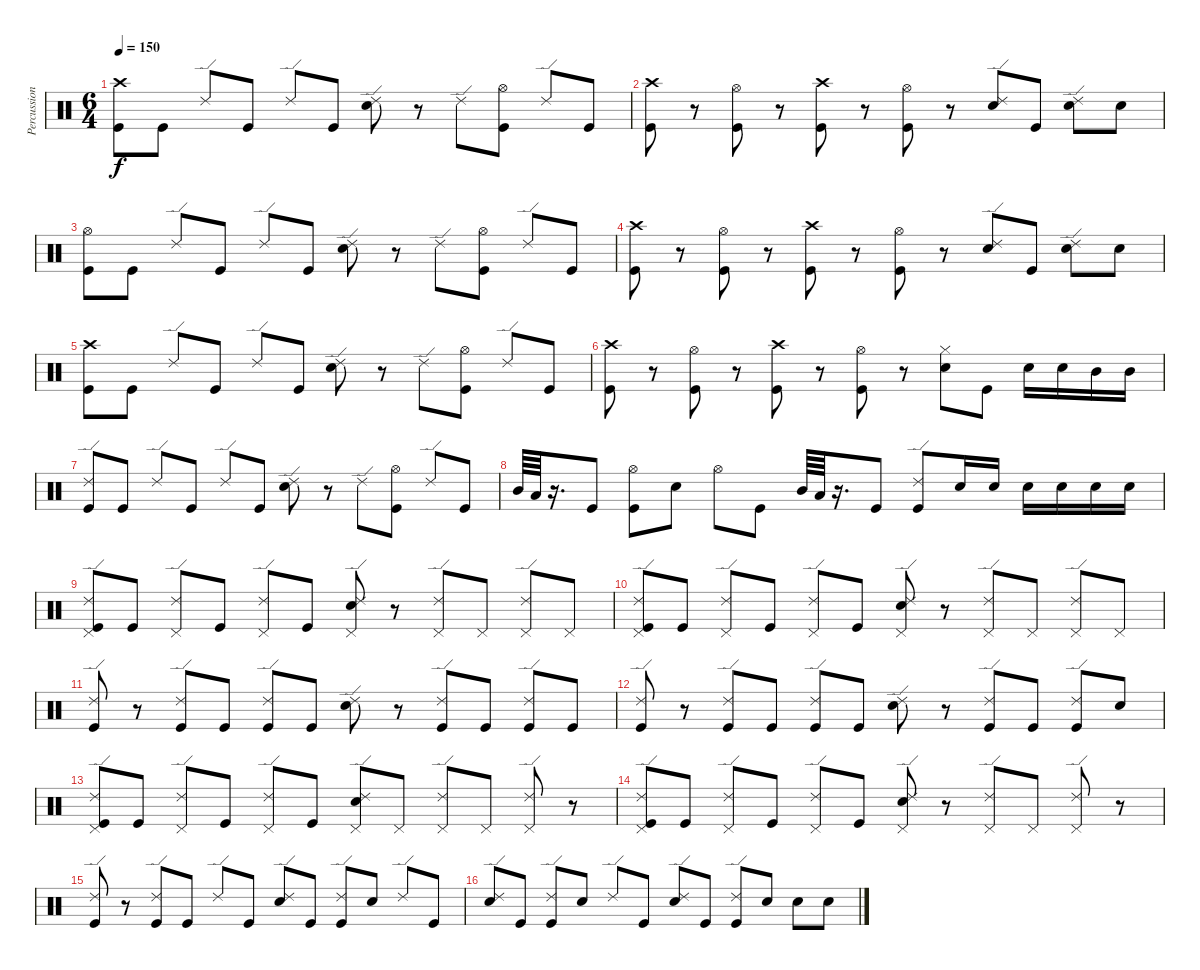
\track ("Percussion" "Percussion") {instrument percussion}
\staff {score}
\articulation defaults
\ts (6 4)
\tempo 150
\clef neutral
\ks c
("Crash high (hit)" "Kick (hit)").8{dy f} "Kick (hit)".8 "Ride (edge) 2".8 "Kick (hit)".8 "Ride (edge) 2".8 "Kick (hit)".8 ("Ride (edge) 2" "Snare (hit) 2").8 r.8 "Ride (edge) 2".8 ("Hi-Hat (open)" "Kick (hit)").8 "Ride (edge) 2".8 "Kick (hit)".8 |
("Crash high (hit)" "Kick (hit)").8 r.8 ("Hi-Hat (open)" "Kick (hit)").8 r.8 ("Crash high (hit)" "Kick (hit)").8 r.8 ("Hi-Hat (open)" "Kick (hit)").8 r.8 ("Ride (edge) 2" "Snare (hit) 2").8 "Kick (hit)".8 ("Ride (edge) 2" "Snare (hit) 2").8 "Snare (hit) 2".8 |
("Hi-Hat (open)" "Kick (hit)").8 "Kick (hit)".8 "Ride (edge) 2".8 "Kick (hit)".8 "Ride (edge) 2".8 "Kick (hit)".8 ("Ride (edge) 2" "Snare (hit) 2").8 r.8 "Ride (edge) 2".8 ("Hi-Hat (open)" "Kick (hit)").8 "Ride (edge) 2".8 "Kick (hit)".8 |
("Crash high (hit)" "Kick (hit)").8 r.8 ("Hi-Hat (open)" "Kick (hit)").8 r.8 ("Crash high (hit)" "Kick (hit)").8 r.8 ("Hi-Hat (open)" "Kick (hit)").8 r.8 ("Ride (edge) 2" "Snare (hit) 2").8 "Kick (hit)".8 ("Ride (edge) 2" "Snare (hit) 2").8 "Snare (hit) 2".8 |
("Crash high (hit)" "Kick (hit)").8 "Kick (hit)".8 "Ride (edge) 2".8 "Kick (hit)".8 "Ride (edge) 2".8 "Kick (hit)".8 ("Ride (edge) 2" "Snare (hit) 2").8 r.8 "Ride (edge) 2".8 ("Hi-Hat (open)" "Kick (hit)").8 "Ride (edge) 2".8 "Kick (hit)".8 |
("Crash high (hit)" "Kick (hit)").8 r.8 ("Hi-Hat (open)" "Kick (hit)").8 r.8 ("Crash high (hit)" "Kick (hit)").8 r.8 ("Hi-Hat (open)" "Kick (hit)").8 r.8 ("Hi-Hat (closed)" "Snare (hit) 2").8 "Kick (hit)".8 "Snare (hit) 2".16 "Snare (hit) 2".16 "Mid Tom (hit)".16 "Mid Tom (hit)".16 |
("Ride (edge) 2" "Kick (hit)").8 "Kick (hit)".8 "Ride (edge) 2".8 "Kick (hit)".8 "Ride (edge) 2".8 "Kick (hit)".8 ("Ride (edge) 2" "Snare (hit) 2").8 r.8 "Ride (edge) 2".8 ("Hi-Hat (open)" "Kick (hit)").8 "Ride (edge) 2".8 "Kick (hit)".8 |
"Mid Tom (hit)".64 "Low Tom (hit)".64 r.16{d} "Kick (hit)".8 ("Hi-Hat (open)" "Kick (hit)").8 "Snare (hit) 2".8 "Hi-Hat (open)".8 "Kick (hit)".8 "Mid Tom (hit)".64 "Low Tom (hit)".64 r.16{d} "Kick (hit)".8 ("Ride (edge) 2" "Kick (hit)").8 "Snare (hit) 2".16 "Snare (hit) 2".16 "Snare (hit) 2".16 "Snare (hit) 2".16 "Snare (hit) 2".16 "Snare (hit) 2".16 |
("Ride (edge) 2" "Pedal Hi-Hat (hit)" "Kick (hit)").8 "Kick (hit)".8 ("Ride (edge) 2" "Pedal Hi-Hat (hit)").8 "Kick (hit)".8 ("Ride (edge) 2" "Pedal Hi-Hat (hit)").8 "Kick (hit)".8 ("Ride (edge) 2" "Pedal Hi-Hat (hit)" "Snare (hit) 2").8 r.8 ("Ride (edge) 2" "Pedal Hi-Hat (hit)").8 "Pedal Hi-Hat (hit)".8 ("Ride (edge) 2" "Pedal Hi-Hat (hit)").8 "Pedal Hi-Hat (hit)".8 |
("Ride (edge) 2" "Pedal Hi-Hat (hit)" "Kick (hit)").8 "Kick (hit)".8 ("Ride (edge) 2" "Pedal Hi-Hat (hit)").8 "Kick (hit)".8 ("Ride (edge) 2" "Pedal Hi-Hat (hit)").8 "Kick (hit)".8 ("Ride (edge) 2" "Pedal Hi-Hat (hit)" "Snare (hit) 2").8 r.8 ("Ride (edge) 2" "Pedal Hi-Hat (hit)").8 "Pedal Hi-Hat (hit)".8 ("Ride (edge) 2" "Pedal Hi-Hat (hit)").8 "Pedal Hi-Hat (hit)".8 |
("Ride (edge) 2" "Kick (hit)").8 r.8 ("Ride (edge) 2" "Kick (hit)").8 "Kick (hit)".8 ("Ride (edge) 2" "Kick (hit)").8 "Kick (hit)".8 ("Ride (edge) 2" "Snare (hit) 2").8 r.8 ("Ride (edge) 2" "Kick (hit)").8 "Kick (hit)".8 ("Ride (edge) 2" "Kick (hit)").8 "Kick (hit)".8 |
("Ride (edge) 2" "Kick (hit)").8 r.8 ("Ride (edge) 2" "Kick (hit)").8 "Kick (hit)".8 ("Ride (edge) 2" "Kick (hit)").8 "Kick (hit)".8 ("Ride (edge) 2" "Snare (hit) 2").8 r.8 ("Ride (edge) 2" "Kick (hit)").8 "Kick (hit)".8 ("Ride (edge) 2" "Kick (hit)").8 "Snare (hit) 2".8 |
("Ride (edge) 2" "Pedal Hi-Hat (hit)" "Kick (hit)").8 "Kick (hit)".8 ("Ride (edge) 2" "Pedal Hi-Hat (hit)").8 "Kick (hit)".8 ("Ride (edge) 2" "Pedal Hi-Hat (hit)").8 "Kick (hit)".8 ("Ride (edge) 2" "Pedal Hi-Hat (hit)" "Snare (hit) 2").8 "Pedal Hi-Hat (hit)".8 ("Ride (edge) 2" "Pedal Hi-Hat (hit)").8 "Pedal Hi-Hat (hit)".8 ("Ride (edge) 2" "Pedal Hi-Hat (hit)").8 r.8 |
("Ride (edge) 2" "Pedal Hi-Hat (hit)" "Kick (hit)").8 "Kick (hit)".8 ("Ride (edge) 2" "Pedal Hi-Hat (hit)").8 "Kick (hit)".8 ("Ride (edge) 2" "Pedal Hi-Hat (hit)").8 "Kick (hit)".8 ("Ride (edge) 2" "Pedal Hi-Hat (hit)" "Snare (hit) 2").8 r.8 ("Ride (edge) 2" "Pedal Hi-Hat (hit)").8 "Pedal Hi-Hat (hit)".8 ("Ride (edge) 2" "Pedal Hi-Hat (hit)").8 r.8 |
("Ride (edge) 2" "Kick (hit)").8 r.8 ("Ride (edge) 2" "Kick (hit)").8 "Kick (hit)".8 "Ride (edge) 2".8 "Kick (hit)".8 ("Ride (edge) 2" "Snare (hit) 2").8 "Kick (hit)".8 ("Ride (edge) 2" "Kick (hit)").8 "Snare (hit) 2".8 "Ride (edge) 2".8 "Kick (hit)".8 |
("Ride (edge) 2" "Snare (hit) 2").8 "Kick (hit)".8 ("Ride (edge) 2" "Kick (hit)").8 "Snare (hit) 2".8 "Ride (edge) 2".8 "Kick (hit)".8 ("Ride (edge) 2" "Snare (hit) 2").8 "Kick (hit)".8 ("Ride (edge) 2" "Kick (hit)").8 "Snare (hit) 2".8 "Snare (hit) 2".8 "Snare (hit) 2".8
